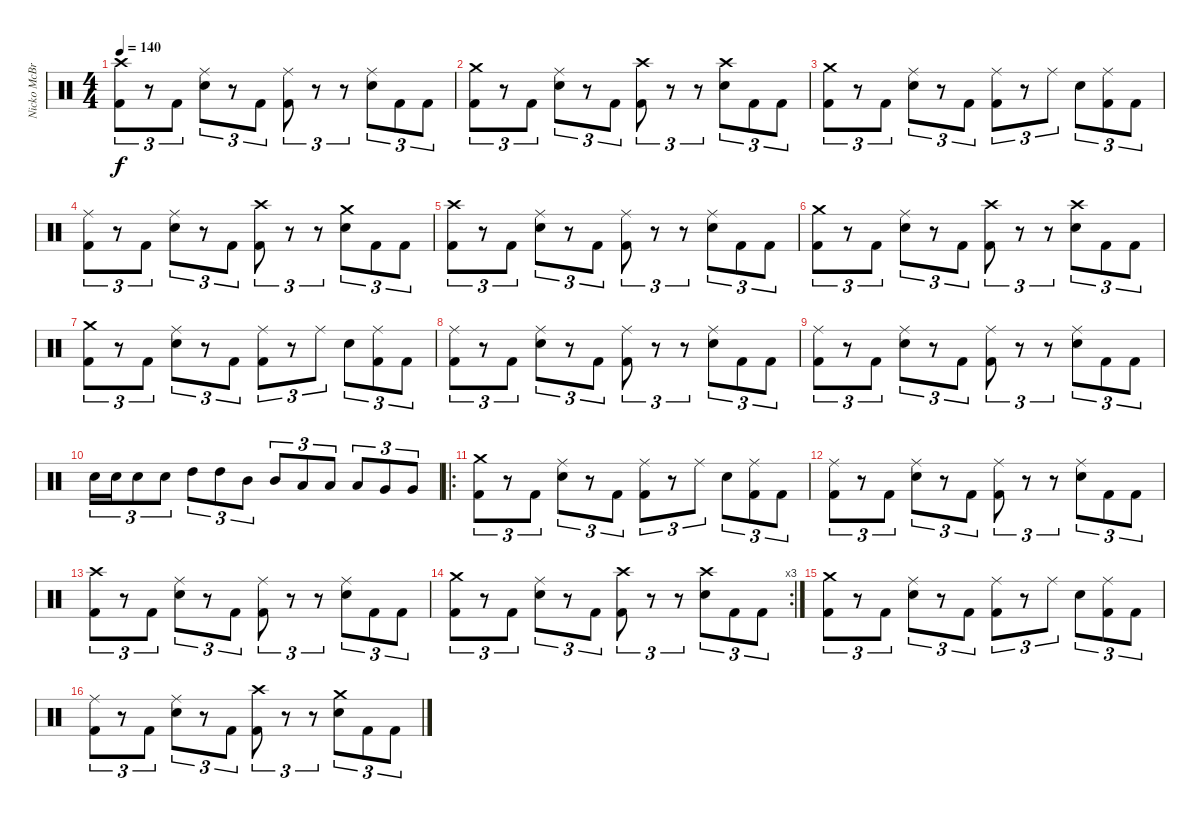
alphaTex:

\track ("Nicko McBrain" "Nicko McBr") {instrument percussion}
\staff {score}
\articulation defaults
\ts (4 4)
\tempo 140
\clef neutral
\ks c
("Crash high (hit)" "Kick (hit) 2").8{tu (3 2) dy f} r.8{tu (3 2)} "Kick (hit) 2".8{tu (3 2)} ("Ride (middle)" "Electric Snare (hit)").8{tu (3 2)} r.8{tu (3 2)} "Kick (hit) 2".8{tu (3 2)} ("Ride (middle)" "Kick (hit) 2").8{tu (3 2)} r.8{tu (3 2)} r.8{tu (3 2)} ("Ride (middle)" "Electric Snare (hit)").8{tu (3 2)} "Kick (hit) 2".8{tu (3 2)} "Kick (hit) 2".8{tu (3 2)} |
("Crash medium (hit)" "Kick (hit) 2").8{tu (3 2)} r.8{tu (3 2)} "Kick (hit) 2".8{tu (3 2)} ("Ride (middle)" "Electric Snare (hit)").8{tu (3 2)} r.8{tu (3 2)} "Kick (hit) 2".8{tu (3 2)} ("Crash high (hit)" "Kick (hit) 2").8{tu (3 2)} r.8{tu (3 2)} r.8{tu (3 2)} ("Crash high (hit)" "Electric Snare (hit)").8{tu (3 2)} "Kick (hit) 2".8{tu (3 2)} "Kick (hit) 2".8{tu (3 2)} |
("Crash medium (hit)" "Kick (hit) 2").8{tu (3 2)} r.8{tu (3 2)} "Kick (hit) 2".8{tu (3 2)} ("Ride (middle)" "Electric Snare (hit)").8{tu (3 2)} r.8{tu (3 2)} "Kick (hit) 2".8{tu (3 2)} ("Ride (middle)" "Kick (hit) 2").8{tu (3 2)} r.8{tu (3 2)} "Ride (middle)".8{tu (3 2)} "Electric Snare (hit)".8{tu (3 2)} ("Ride (middle)" "Kick (hit) 2").8{tu (3 2)} "Kick (hit) 2".8{tu (3 2)} |
("Ride (middle)" "Kick (hit) 2").8{tu (3 2)} r.8{tu (3 2)} "Kick (hit) 2".8{tu (3 2)} ("Ride (middle)" "Electric Snare (hit)").8{tu (3 2)} r.8{tu (3 2)} "Kick (hit) 2".8{tu (3 2)} ("Crash high (hit)" "Kick (hit) 2").8{tu (3 2)} r.8{tu (3 2)} r.8{tu (3 2)} ("Crash medium (hit)" "Electric Snare (hit)").8{tu (3 2)} "Kick (hit) 2".8{tu (3 2)} "Kick (hit) 2".8{tu (3 2)} |
("Crash high (hit)" "Kick (hit) 2").8{tu (3 2)} r.8{tu (3 2)} "Kick (hit) 2".8{tu (3 2)} ("Ride (middle)" "Electric Snare (hit)").8{tu (3 2)} r.8{tu (3 2)} "Kick (hit) 2".8{tu (3 2)} ("Ride (middle)" "Kick (hit) 2").8{tu (3 2)} r.8{tu (3 2)} r.8{tu (3 2)} ("Ride (middle)" "Electric Snare (hit)").8{tu (3 2)} "Kick (hit) 2".8{tu (3 2)} "Kick (hit) 2".8{tu (3 2)} |
("Crash medium (hit)" "Kick (hit) 2").8{tu (3 2)} r.8{tu (3 2)} "Kick (hit) 2".8{tu (3 2)} ("Ride (middle)" "Electric Snare (hit)").8{tu (3 2)} r.8{tu (3 2)} "Kick (hit) 2".8{tu (3 2)} ("Crash high (hit)" "Kick (hit) 2").8{tu (3 2)} r.8{tu (3 2)} r.8{tu (3 2)} ("Crash high (hit)" "Electric Snare (hit)").8{tu (3 2)} "Kick (hit) 2".8{tu (3 2)} "Kick (hit) 2".8{tu (3 2)} |
("Crash medium (hit)" "Kick (hit) 2").8{tu (3 2)} r.8{tu (3 2)} "Kick (hit) 2".8{tu (3 2)} ("Ride (middle)" "Electric Snare (hit)").8{tu (3 2)} r.8{tu (3 2)} "Kick (hit) 2".8{tu (3 2)} ("Ride (middle)" "Kick (hit) 2").8{tu (3 2)} r.8{tu (3 2)} "Ride (middle)".8{tu (3 2)} "Electric Snare (hit)".8{tu (3 2)} ("Ride (middle)" "Kick (hit) 2").8{tu (3 2)} "Kick (hit) 2".8{tu (3 2)} |
("Ride (middle)" "Kick (hit) 2").8{tu (3 2)} r.8{tu (3 2)} "Kick (hit) 2".8{tu (3 2)} ("Ride (middle)" "Electric Snare (hit)").8{tu (3 2)} r.8{tu (3 2)} "Kick (hit) 2".8{tu (3 2)} ("Ride (middle)" "Kick (hit) 2").8{tu (3 2)} r.8{tu (3 2)} r.8{tu (3 2)} ("Ride (middle)" "Electric Snare (hit)").8{tu (3 2)} "Kick (hit) 2".8{tu (3 2)} "Kick (hit) 2".8{tu (3 2)} |
("Ride (middle)" "Kick (hit) 2").8{tu (3 2)} r.8{tu (3 2)} "Kick (hit) 2".8{tu (3 2)} ("Ride (middle)" "Electric Snare (hit)").8{tu (3 2)} r.8{tu (3 2)} "Kick (hit) 2".8{tu (3 2)} ("Ride (middle)" "Kick (hit) 2").8{tu (3 2)} r.8{tu (3 2)} r.8{tu (3 2)} ("Ride (middle)" "Electric Snare (hit)").8{tu (3 2)} "Kick (hit) 2".8{tu (3 2)} "Kick (hit) 2".8{tu (3 2)} |
"Electric Snare (hit)".16{tu (3 2)} "Electric Snare (hit)".16{tu (3 2)} "Electric Snare (hit)".8{tu (3 2)} "Electric Snare (hit)".8{tu (3 2)} "High Tom (hit)".8{tu (3 2)} "High Tom (hit)".8{tu (3 2)} "Mid Tom (hit)".8{tu (3 2)} "Mid Tom (hit)".8{tu (3 2)} "Low Tom (hit)".8{tu (3 2)} "Low Tom (hit)".8{tu (3 2)} "Low Tom (hit)".8{tu (3 2)} "Very Low Tom (hit)".8{tu (3 2)} "Very Low Tom (hit)".8{tu (3 2)} |
\ro
("Crash medium (hit)" "Kick (hit) 2").8{tu (3 2)} r.8{tu (3 2)} "Kick (hit) 2".8{tu (3 2)} ("Ride (middle)" "Electric Snare (hit)").8{tu (3 2)} r.8{tu (3 2)} "Kick (hit) 2".8{tu (3 2)} ("Ride (middle)" "Kick (hit) 2").8{tu (3 2)} r.8{tu (3 2)} "Ride (middle)".8{tu (3 2)} "Electric Snare (hit)".8{tu (3 2)} ("Ride (middle)" "Kick (hit) 2").8{tu (3 2)} "Kick (hit) 2".8{tu (3 2)} |
("Ride (middle)" "Kick (hit) 2").8{tu (3 2)} r.8{tu (3 2)} "Kick (hit) 2".8{tu (3 2)} ("Ride (middle)" "Electric Snare (hit)").8{tu (3 2)} r.8{tu (3 2)} "Kick (hit) 2".8{tu (3 2)} ("Ride (middle)" "Kick (hit) 2").8{tu (3 2)} r.8{tu (3 2)} r.8{tu (3 2)} ("Ride (middle)" "Electric Snare (hit)").8{tu (3 2)} "Kick (hit) 2".8{tu (3 2)} "Kick (hit) 2".8{tu (3 2)} |
("Crash high (hit)" "Kick (hit) 2").8{tu (3 2)} r.8{tu (3 2)} "Kick (hit) 2".8{tu (3 2)} ("Ride (middle)" "Electric Snare (hit)").8{tu (3 2)} r.8{tu (3 2)} "Kick (hit) 2".8{tu (3 2)} ("Ride (middle)" "Kick (hit) 2").8{tu (3 2)} r.8{tu (3 2)} r.8{tu (3 2)} ("Ride (middle)" "Electric Snare (hit)").8{tu (3 2)} "Kick (hit) 2".8{tu (3 2)} "Kick (hit) 2".8{tu (3 2)} |
\rc 3
("Crash medium (hit)" "Kick (hit) 2").8{tu (3 2)} r.8{tu (3 2)} "Kick (hit) 2".8{tu (3 2)} ("Ride (middle)" "Electric Snare (hit)").8{tu (3 2)} r.8{tu (3 2)} "Kick (hit) 2".8{tu (3 2)} ("Crash high (hit)" "Kick (hit) 2").8{tu (3 2)} r.8{tu (3 2)} r.8{tu (3 2)} ("Crash high (hit)" "Electric Snare (hit)").8{tu (3 2)} "Kick (hit) 2".8{tu (3 2)} "Kick (hit) 2".8{tu (3 2)} |
("Crash medium (hit)" "Kick (hit) 2").8{tu (3 2)} r.8{tu (3 2)} "Kick (hit) 2".8{tu (3 2)} ("Ride (middle)" "Electric Snare (hit)").8{tu (3 2)} r.8{tu (3 2)} "Kick (hit) 2".8{tu (3 2)} ("Ride (middle)" "Kick (hit) 2").8{tu (3 2)} r.8{tu (3 2)} "Ride (middle)".8{tu (3 2)} "Electric Snare (hit)".8{tu (3 2)} ("Ride (middle)" "Kick (hit) 2").8{tu (3 2)} "Kick (hit) 2".8{tu (3 2)} |
("Ride (middle)" "Kick (hit) 2").8{tu (3 2)} r.8{tu (3 2)} "Kick (hit) 2".8{tu (3 2)} ("Ride (middle)" "Electric Snare (hit)").8{tu (3 2)} r.8{tu (3 2)} "Kick (hit) 2".8{tu (3 2)} ("Crash high (hit)" "Kick (hit) 2").8{tu (3 2)} r.8{tu (3 2)} r.8{tu (3 2)} ("Crash medium (hit)" "Electric Snare (hit)").8{tu (3 2)} "Kick (hit) 2".8{tu (3 2)} "Kick (hit) 2".8{tu (3 2)}
